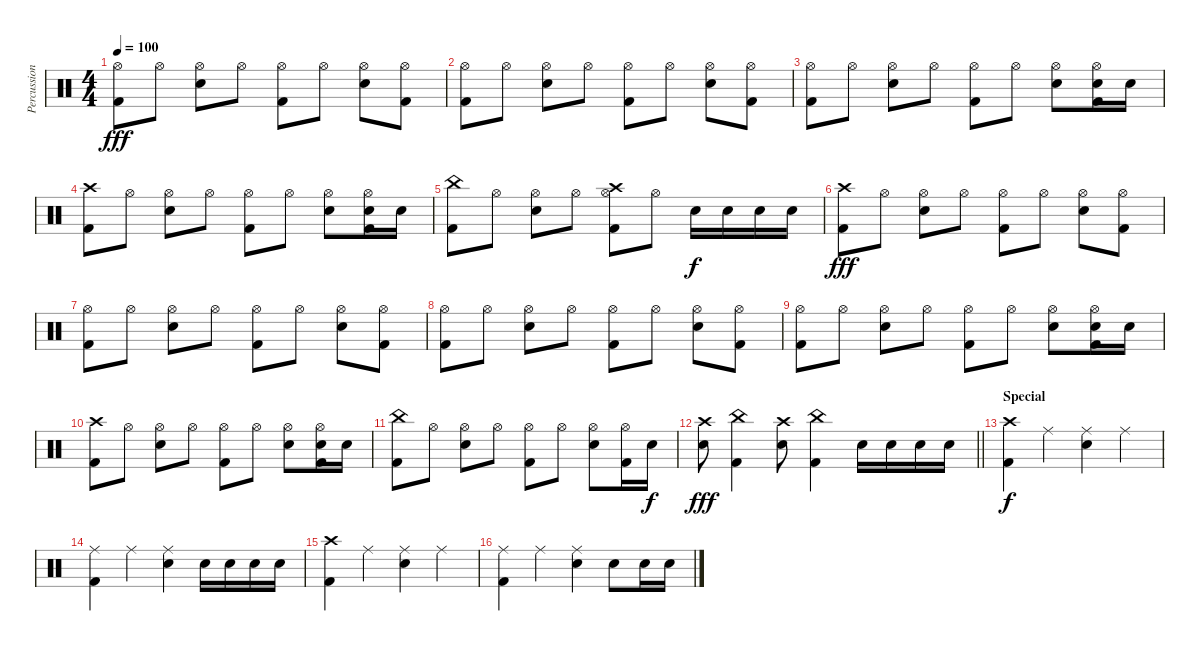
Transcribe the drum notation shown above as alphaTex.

\track ("Percussioni" "Percussion") {instrument percussion}
\staff {score}
\articulation defaults
\ts (4 4)
\tempo 100
\clef neutral
\ks c
("Hi-Hat (open)" "Kick (hit) 2").8{dy fff} "Hi-Hat (open)".8 ("Hi-Hat (open)" "Snare (hit) 2").8 "Hi-Hat (open)".8 ("Hi-Hat (open)" "Kick (hit) 2").8 "Hi-Hat (open)".8 ("Hi-Hat (open)" "Snare (hit) 2").8 ("Hi-Hat (open)" "Kick (hit) 2").8 |
("Hi-Hat (open)" "Kick (hit) 2").8 "Hi-Hat (open)".8 ("Hi-Hat (open)" "Snare (hit) 2").8 "Hi-Hat (open)".8 ("Hi-Hat (open)" "Kick (hit) 2").8 "Hi-Hat (open)".8 ("Hi-Hat (open)" "Snare (hit) 2").8 ("Hi-Hat (open)" "Kick (hit) 2").8 |
("Hi-Hat (open)" "Kick (hit) 2").8 "Hi-Hat (open)".8 ("Hi-Hat (open)" "Snare (hit) 2").8 "Hi-Hat (open)".8 ("Hi-Hat (open)" "Kick (hit) 2").8 "Hi-Hat (open)".8 ("Hi-Hat (open)" "Snare (hit) 2").8 ("Hi-Hat (open)" "Snare (hit) 2" "Kick (hit) 2").16 "Snare (hit) 2".16 |
("Crash high (hit)" "Kick (hit) 2").8 "Hi-Hat (open)".8 ("Hi-Hat (open)" "Snare (hit) 2").8 "Hi-Hat (open)".8 ("Hi-Hat (open)" "Kick (hit) 2").8 "Hi-Hat (open)".8 ("Hi-Hat (open)" "Snare (hit) 2").8 ("Hi-Hat (open)" "Snare (hit) 2" "Kick (hit) 2").16 "Snare (hit) 2".16 |
("China (hit)" "Kick (hit) 2").8 "Hi-Hat (open)".8 ("Hi-Hat (open)" "Snare (hit) 2").8 "Hi-Hat (open)".8 ("Crash high (hit)" "Hi-Hat (open)" "Kick (hit) 2").8 "Hi-Hat (open)".8 "Snare (hit) 2".16{dy f} "Snare (hit) 2".16 "Snare (hit) 2".16 "Snare (hit) 2".16 |
("Crash high (hit)" "Kick (hit) 2").8{dy fff} "Hi-Hat (open)".8 ("Hi-Hat (open)" "Snare (hit) 2").8 "Hi-Hat (open)".8 ("Hi-Hat (open)" "Kick (hit) 2").8 "Hi-Hat (open)".8 ("Hi-Hat (open)" "Snare (hit) 2").8 ("Hi-Hat (open)" "Kick (hit) 2").8 |
("Hi-Hat (open)" "Kick (hit) 2").8 "Hi-Hat (open)".8 ("Hi-Hat (open)" "Snare (hit) 2").8 "Hi-Hat (open)".8 ("Hi-Hat (open)" "Kick (hit) 2").8 "Hi-Hat (open)".8 ("Hi-Hat (open)" "Snare (hit) 2").8 ("Hi-Hat (open)" "Kick (hit) 2").8 |
("Hi-Hat (open)" "Kick (hit) 2").8 "Hi-Hat (open)".8 ("Hi-Hat (open)" "Snare (hit) 2").8 "Hi-Hat (open)".8 ("Hi-Hat (open)" "Kick (hit) 2").8 "Hi-Hat (open)".8 ("Hi-Hat (open)" "Snare (hit) 2").8 ("Hi-Hat (open)" "Kick (hit) 2").8 |
("Hi-Hat (open)" "Kick (hit) 2").8 "Hi-Hat (open)".8 ("Hi-Hat (open)" "Snare (hit) 2").8 "Hi-Hat (open)".8 ("Hi-Hat (open)" "Kick (hit) 2").8 "Hi-Hat (open)".8 ("Hi-Hat (open)" "Snare (hit) 2").8 ("Hi-Hat (open)" "Snare (hit) 2" "Kick (hit) 2").16 "Snare (hit) 2".16 |
("Crash high (hit)" "Kick (hit) 2").8 "Hi-Hat (open)".8 ("Hi-Hat (open)" "Snare (hit) 2").8 "Hi-Hat (open)".8 ("Hi-Hat (open)" "Kick (hit) 2").8 "Hi-Hat (open)".8 ("Hi-Hat (open)" "Snare (hit) 2").8 ("Hi-Hat (open)" "Snare (hit) 2" "Kick (hit) 2").16 "Snare (hit) 2".16 |
("China (hit)" "Kick (hit) 2").8 "Hi-Hat (open)".8 ("Hi-Hat (open)" "Snare (hit) 2").8 "Hi-Hat (open)".8 ("Hi-Hat (open)" "Kick (hit) 2").8 "Hi-Hat (open)".8 ("Hi-Hat (open)" "Snare (hit) 2").8 ("Hi-Hat (open)" "Kick (hit) 2").16 "Snare (hit) 2".16{dy f} |
\barLineRight lightlight
("Crash high (hit)" "Snare (hit) 2").8{dy fff} ("China (hit)" "Kick (hit) 2").4 ("Crash high (hit)" "Snare (hit) 2").8 ("China (hit)" "Kick (hit) 2").4 "Snare (hit) 2".16 "Snare (hit) 2".16 "Snare (hit) 2".16 "Snare (hit) 2".16 |
\section ("" "Special")
("Crash high (hit)" "Kick (hit) 2").4{dy f} "Ride (middle)".4 ("Ride (middle)" "Snare (hit) 2").4 "Ride (middle)".4 |
("Ride (middle)" "Kick (hit) 2").4 "Ride (middle)".4 ("Ride (middle)" "Snare (hit) 2").4 "Snare (hit) 2".16 "Snare (hit) 2".16 "Snare (hit) 2".16 "Snare (hit) 2".16 |
("Crash high (hit)" "Kick (hit) 2").4 "Ride (middle)".4 ("Ride (middle)" "Snare (hit) 2").4 "Ride (middle)".4 |
("Ride (middle)" "Kick (hit) 2").4 "Ride (middle)".4 ("Ride (middle)" "Snare (hit) 2").4 "Snare (hit) 2".8 "Snare (hit) 2".16 "Snare (hit) 2".16
